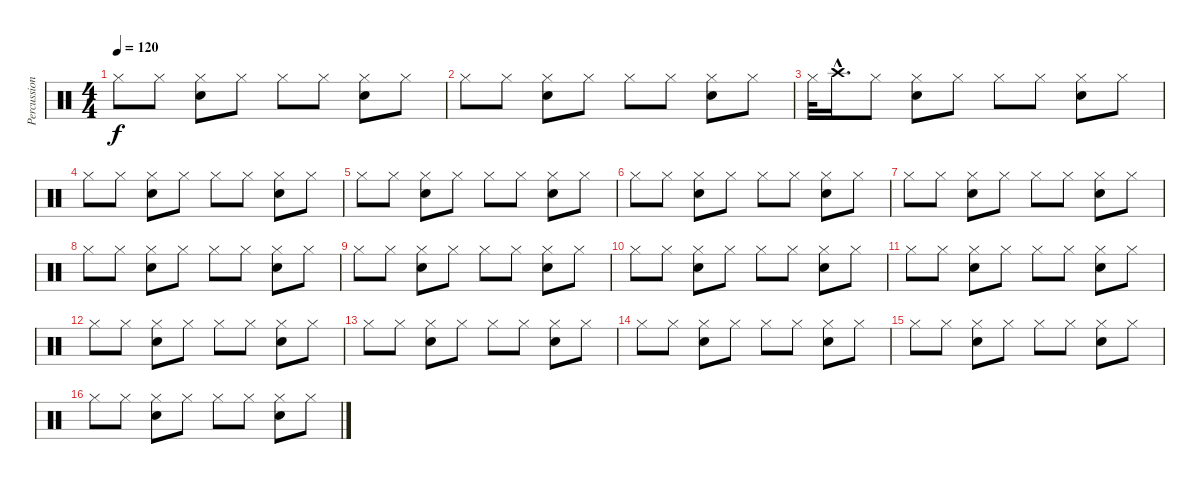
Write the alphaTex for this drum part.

\track ("Percussion      " "Percussion") {instrument percussion}
\staff {score}
\articulation defaults
\ts (4 4)
\tempo 120
\clef neutral
\ks c "Hi-Hat (closed)".8{dy f} "Hi-Hat (closed)".8
("Hi-Hat (closed)" "Snare (hit) 2").8 "Hi-Hat (closed)".8 "Hi-Hat (closed)".8 "Hi-Hat (closed)".8 ("Hi-Hat (closed)" "Snare (hit) 2").8 "Hi-Hat (closed)".8 |
"Hi-Hat (closed)".8 "Hi-Hat (closed)".8 ("Hi-Hat (closed)" "Snare (hit) 2").8 "Hi-Hat (closed)".8 "Hi-Hat (closed)".8 "Hi-Hat (closed)".8 ("Hi-Hat (closed)" "Snare (hit) 2").8 "Hi-Hat (closed)".8 |
"Hi-Hat (closed)".32 "Crash high (hit)"{hac}.16{d} "Hi-Hat (closed)".8 ("Hi-Hat (closed)" "Snare (hit) 2").8 "Hi-Hat (closed)".8 "Hi-Hat (closed)".8 "Hi-Hat (closed)".8 ("Hi-Hat (closed)" "Snare (hit) 2").8 "Hi-Hat (closed)".8 |
"Hi-Hat (closed)".8 "Hi-Hat (closed)".8 ("Hi-Hat (closed)" "Snare (hit) 2").8 "Hi-Hat (closed)".8 "Hi-Hat (closed)".8 "Hi-Hat (closed)".8 ("Hi-Hat (closed)" "Snare (hit) 2").8 "Hi-Hat (closed)".8 |
"Hi-Hat (closed)".8 "Hi-Hat (closed)".8 ("Hi-Hat (closed)" "Snare (hit) 2").8 "Hi-Hat (closed)".8 "Hi-Hat (closed)".8 "Hi-Hat (closed)".8 ("Hi-Hat (closed)" "Snare (hit) 2").8 "Hi-Hat (closed)".8 |
"Hi-Hat (closed)".8 "Hi-Hat (closed)".8 ("Hi-Hat (closed)" "Snare (hit) 2").8 "Hi-Hat (closed)".8 "Hi-Hat (closed)".8 "Hi-Hat (closed)".8 ("Hi-Hat (closed)" "Snare (hit) 2").8 "Hi-Hat (closed)".8 |
"Hi-Hat (closed)".8 "Hi-Hat (closed)".8 ("Hi-Hat (closed)" "Snare (hit) 2").8 "Hi-Hat (closed)".8 "Hi-Hat (closed)".8 "Hi-Hat (closed)".8 ("Hi-Hat (closed)" "Snare (hit) 2").8 "Hi-Hat (closed)".8 |
"Hi-Hat (closed)".8 "Hi-Hat (closed)".8 ("Hi-Hat (closed)" "Snare (hit) 2").8 "Hi-Hat (closed)".8 "Hi-Hat (closed)".8 "Hi-Hat (closed)".8 ("Hi-Hat (closed)" "Snare (hit) 2").8 "Hi-Hat (closed)".8 |
"Hi-Hat (closed)".8 "Hi-Hat (closed)".8 ("Hi-Hat (closed)" "Snare (hit) 2").8 "Hi-Hat (closed)".8 "Hi-Hat (closed)".8 "Hi-Hat (closed)".8 ("Hi-Hat (closed)" "Snare (hit) 2").8 "Hi-Hat (closed)".8 |
"Hi-Hat (closed)".8 "Hi-Hat (closed)".8 ("Hi-Hat (closed)" "Snare (hit) 2").8 "Hi-Hat (closed)".8 "Hi-Hat (closed)".8 "Hi-Hat (closed)".8 ("Hi-Hat (closed)" "Snare (hit) 2").8 "Hi-Hat (closed)".8 |
"Hi-Hat (closed)".8 "Hi-Hat (closed)".8 ("Hi-Hat (closed)" "Snare (hit) 2").8 "Hi-Hat (closed)".8 "Hi-Hat (closed)".8 "Hi-Hat (closed)".8 ("Hi-Hat (closed)" "Snare (hit) 2").8 "Hi-Hat (closed)".8 |
"Hi-Hat (closed)".8 "Hi-Hat (closed)".8 ("Hi-Hat (closed)" "Snare (hit) 2").8 "Hi-Hat (closed)".8 "Hi-Hat (closed)".8 "Hi-Hat (closed)".8 ("Hi-Hat (closed)" "Snare (hit) 2").8 "Hi-Hat (closed)".8 |
"Hi-Hat (closed)".8 "Hi-Hat (closed)".8 ("Hi-Hat (closed)" "Snare (hit) 2").8 "Hi-Hat (closed)".8 "Hi-Hat (closed)".8 "Hi-Hat (closed)".8 ("Hi-Hat (closed)" "Snare (hit) 2").8 "Hi-Hat (closed)".8 |
"Hi-Hat (closed)".8 "Hi-Hat (closed)".8 ("Hi-Hat (closed)" "Snare (hit) 2").8 "Hi-Hat (closed)".8 "Hi-Hat (closed)".8 "Hi-Hat (closed)".8 ("Hi-Hat (closed)" "Snare (hit) 2").8 "Hi-Hat (closed)".8 |
"Hi-Hat (closed)".8 "Hi-Hat (closed)".8 ("Hi-Hat (closed)" "Snare (hit) 2").8 "Hi-Hat (closed)".8 "Hi-Hat (closed)".8 "Hi-Hat (closed)".8 ("Hi-Hat (closed)" "Snare (hit) 2").8 "Hi-Hat (closed)".8 |
"Hi-Hat (closed)".8 "Hi-Hat (closed)".8 ("Hi-Hat (closed)" "Snare (hit) 2").8 "Hi-Hat (closed)".8 "Hi-Hat (closed)".8 "Hi-Hat (closed)".8 ("Hi-Hat (closed)" "Snare (hit) 2").8 "Hi-Hat (closed)".8
